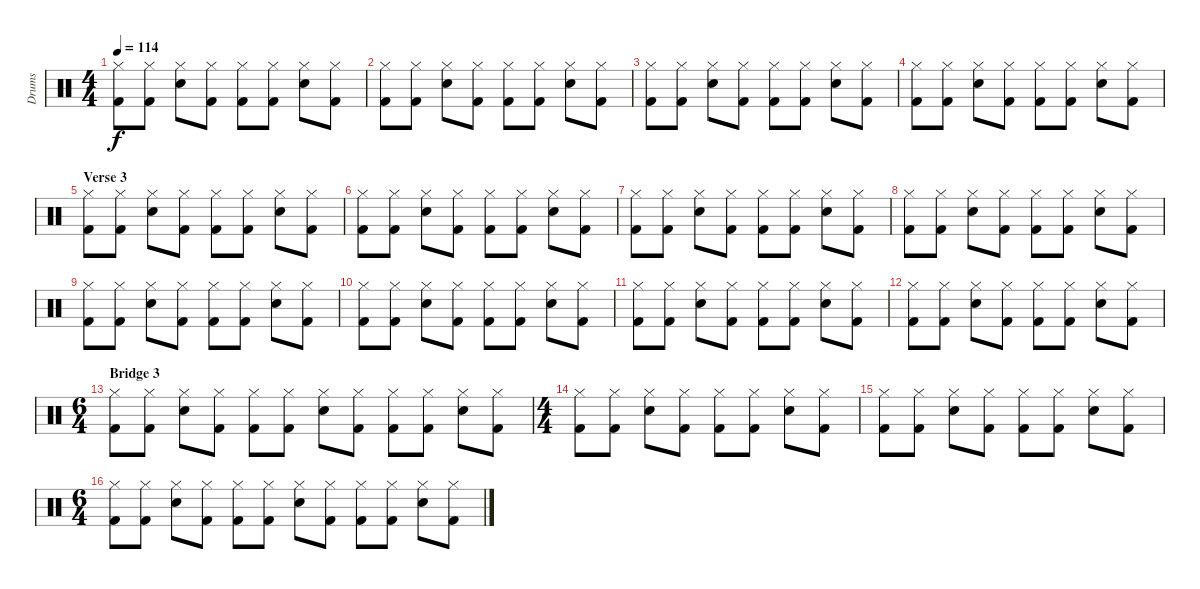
\track ("Drums" "Drums") {instrument percussion}
\staff {score}
\articulation defaults
\ts (4 4)
\tempo 114
\clef neutral
\ks c
("Hi-Hat (closed)" "Kick (hit) 2").8{dy f} ("Hi-Hat (closed)" "Kick (hit) 2").8 ("Hi-Hat (closed)" "Snare (hit) 2").8 ("Hi-Hat (closed)" "Kick (hit) 2").8 ("Hi-Hat (closed)" "Kick (hit) 2").8 ("Hi-Hat (closed)" "Kick (hit) 2").8 ("Hi-Hat (closed)" "Snare (hit) 2").8 ("Hi-Hat (closed)" "Kick (hit) 2").8 |
("Hi-Hat (closed)" "Kick (hit) 2").8 ("Hi-Hat (closed)" "Kick (hit) 2").8 ("Hi-Hat (closed)" "Snare (hit) 2").8 ("Hi-Hat (closed)" "Kick (hit) 2").8 ("Hi-Hat (closed)" "Kick (hit) 2").8 ("Hi-Hat (closed)" "Kick (hit) 2").8 ("Hi-Hat (closed)" "Snare (hit) 2").8 ("Hi-Hat (closed)" "Kick (hit) 2").8 |
("Hi-Hat (closed)" "Kick (hit) 2").8 ("Hi-Hat (closed)" "Kick (hit) 2").8 ("Hi-Hat (closed)" "Snare (hit) 2").8 ("Hi-Hat (closed)" "Kick (hit) 2").8 ("Hi-Hat (closed)" "Kick (hit) 2").8 ("Hi-Hat (closed)" "Kick (hit) 2").8 ("Hi-Hat (closed)" "Snare (hit) 2").8 ("Hi-Hat (closed)" "Kick (hit) 2").8 |
("Hi-Hat (closed)" "Kick (hit) 2").8 ("Hi-Hat (closed)" "Kick (hit) 2").8 ("Hi-Hat (closed)" "Snare (hit) 2").8 ("Hi-Hat (closed)" "Kick (hit) 2").8 ("Hi-Hat (closed)" "Kick (hit) 2").8 ("Hi-Hat (closed)" "Kick (hit) 2").8 ("Hi-Hat (closed)" "Snare (hit) 2").8 ("Hi-Hat (closed)" "Kick (hit) 2").8 |
\section ("" "Verse 3")
("Hi-Hat (closed)" "Kick (hit) 2").8 ("Hi-Hat (closed)" "Kick (hit) 2").8 ("Hi-Hat (closed)" "Snare (hit) 2").8 ("Hi-Hat (closed)" "Kick (hit) 2").8 ("Hi-Hat (closed)" "Kick (hit) 2").8 ("Hi-Hat (closed)" "Kick (hit) 2").8 ("Hi-Hat (closed)" "Snare (hit) 2").8 ("Hi-Hat (closed)" "Kick (hit) 2").8 |
("Hi-Hat (closed)" "Kick (hit) 2").8 ("Hi-Hat (closed)" "Kick (hit) 2").8 ("Hi-Hat (closed)" "Snare (hit) 2").8 ("Hi-Hat (closed)" "Kick (hit) 2").8 ("Hi-Hat (closed)" "Kick (hit) 2").8 ("Hi-Hat (closed)" "Kick (hit) 2").8 ("Hi-Hat (closed)" "Snare (hit) 2").8 ("Hi-Hat (closed)" "Kick (hit) 2").8 |
("Hi-Hat (closed)" "Kick (hit) 2").8 ("Hi-Hat (closed)" "Kick (hit) 2").8 ("Hi-Hat (closed)" "Snare (hit) 2").8 ("Hi-Hat (closed)" "Kick (hit) 2").8 ("Hi-Hat (closed)" "Kick (hit) 2").8 ("Hi-Hat (closed)" "Kick (hit) 2").8 ("Hi-Hat (closed)" "Snare (hit) 2").8 ("Hi-Hat (closed)" "Kick (hit) 2").8 |
("Hi-Hat (closed)" "Kick (hit) 2").8 ("Hi-Hat (closed)" "Kick (hit) 2").8 ("Hi-Hat (closed)" "Snare (hit) 2").8 ("Hi-Hat (closed)" "Kick (hit) 2").8 ("Hi-Hat (closed)" "Kick (hit) 2").8 ("Hi-Hat (closed)" "Kick (hit) 2").8 ("Hi-Hat (closed)" "Snare (hit) 2").8 ("Hi-Hat (closed)" "Kick (hit) 2").8 |
("Hi-Hat (closed)" "Kick (hit) 2").8 ("Hi-Hat (closed)" "Kick (hit) 2").8 ("Hi-Hat (closed)" "Snare (hit) 2").8 ("Hi-Hat (closed)" "Kick (hit) 2").8 ("Hi-Hat (closed)" "Kick (hit) 2").8 ("Hi-Hat (closed)" "Kick (hit) 2").8 ("Hi-Hat (closed)" "Snare (hit) 2").8 ("Hi-Hat (closed)" "Kick (hit) 2").8 |
("Hi-Hat (closed)" "Kick (hit) 2").8 ("Hi-Hat (closed)" "Kick (hit) 2").8 ("Hi-Hat (closed)" "Snare (hit) 2").8 ("Hi-Hat (closed)" "Kick (hit) 2").8 ("Hi-Hat (closed)" "Kick (hit) 2").8 ("Hi-Hat (closed)" "Kick (hit) 2").8 ("Hi-Hat (closed)" "Snare (hit) 2").8 ("Hi-Hat (closed)" "Kick (hit) 2").8 |
("Hi-Hat (closed)" "Kick (hit) 2").8 ("Hi-Hat (closed)" "Kick (hit) 2").8 ("Hi-Hat (closed)" "Snare (hit) 2").8 ("Hi-Hat (closed)" "Kick (hit) 2").8 ("Hi-Hat (closed)" "Kick (hit) 2").8 ("Hi-Hat (closed)" "Kick (hit) 2").8 ("Hi-Hat (closed)" "Snare (hit) 2").8 ("Hi-Hat (closed)" "Kick (hit) 2").8 |
("Hi-Hat (closed)" "Kick (hit) 2").8 ("Hi-Hat (closed)" "Kick (hit) 2").8 ("Hi-Hat (closed)" "Snare (hit) 2").8 ("Hi-Hat (closed)" "Kick (hit) 2").8 ("Hi-Hat (closed)" "Kick (hit) 2").8 ("Hi-Hat (closed)" "Kick (hit) 2").8 ("Hi-Hat (closed)" "Snare (hit) 2").8 ("Hi-Hat (closed)" "Kick (hit) 2").8 |
\ts (6 4)
\section ("" "Bridge 3")
("Hi-Hat (closed)" "Kick (hit) 2").8 ("Hi-Hat (closed)" "Kick (hit) 2").8 ("Hi-Hat (closed)" "Snare (hit) 2").8 ("Hi-Hat (closed)" "Kick (hit) 2").8 ("Hi-Hat (closed)" "Kick (hit) 2").8 ("Hi-Hat (closed)" "Kick (hit) 2").8 ("Hi-Hat (closed)" "Snare (hit) 2").8 ("Hi-Hat (closed)" "Kick (hit) 2").8 ("Hi-Hat (closed)" "Kick (hit) 2").8 ("Hi-Hat (closed)" "Kick (hit) 2").8 ("Hi-Hat (closed)" "Snare (hit) 2").8 ("Hi-Hat (closed)" "Kick (hit) 2").8 |
\ts (4 4)
("Hi-Hat (closed)" "Kick (hit) 2").8 ("Hi-Hat (closed)" "Kick (hit) 2").8 ("Hi-Hat (closed)" "Snare (hit) 2").8 ("Hi-Hat (closed)" "Kick (hit) 2").8 ("Hi-Hat (closed)" "Kick (hit) 2").8 ("Hi-Hat (closed)" "Kick (hit) 2").8 ("Hi-Hat (closed)" "Snare (hit) 2").8 ("Hi-Hat (closed)" "Kick (hit) 2").8 |
("Hi-Hat (closed)" "Kick (hit) 2").8 ("Hi-Hat (closed)" "Kick (hit) 2").8 ("Hi-Hat (closed)" "Snare (hit) 2").8 ("Hi-Hat (closed)" "Kick (hit) 2").8 ("Hi-Hat (closed)" "Kick (hit) 2").8 ("Hi-Hat (closed)" "Kick (hit) 2").8 ("Hi-Hat (closed)" "Snare (hit) 2").8 ("Hi-Hat (closed)" "Kick (hit) 2").8 |
\ts (6 4)
("Hi-Hat (closed)" "Kick (hit) 2").8 ("Hi-Hat (closed)" "Kick (hit) 2").8 ("Hi-Hat (closed)" "Snare (hit) 2").8 ("Hi-Hat (closed)" "Kick (hit) 2").8 ("Hi-Hat (closed)" "Kick (hit) 2").8 ("Hi-Hat (closed)" "Kick (hit) 2").8 ("Hi-Hat (closed)" "Snare (hit) 2").8 ("Hi-Hat (closed)" "Kick (hit) 2").8 ("Hi-Hat (closed)" "Kick (hit) 2").8 ("Hi-Hat (closed)" "Kick (hit) 2").8 ("Hi-Hat (closed)" "Snare (hit) 2").8 ("Hi-Hat (closed)" "Kick (hit) 2").8
